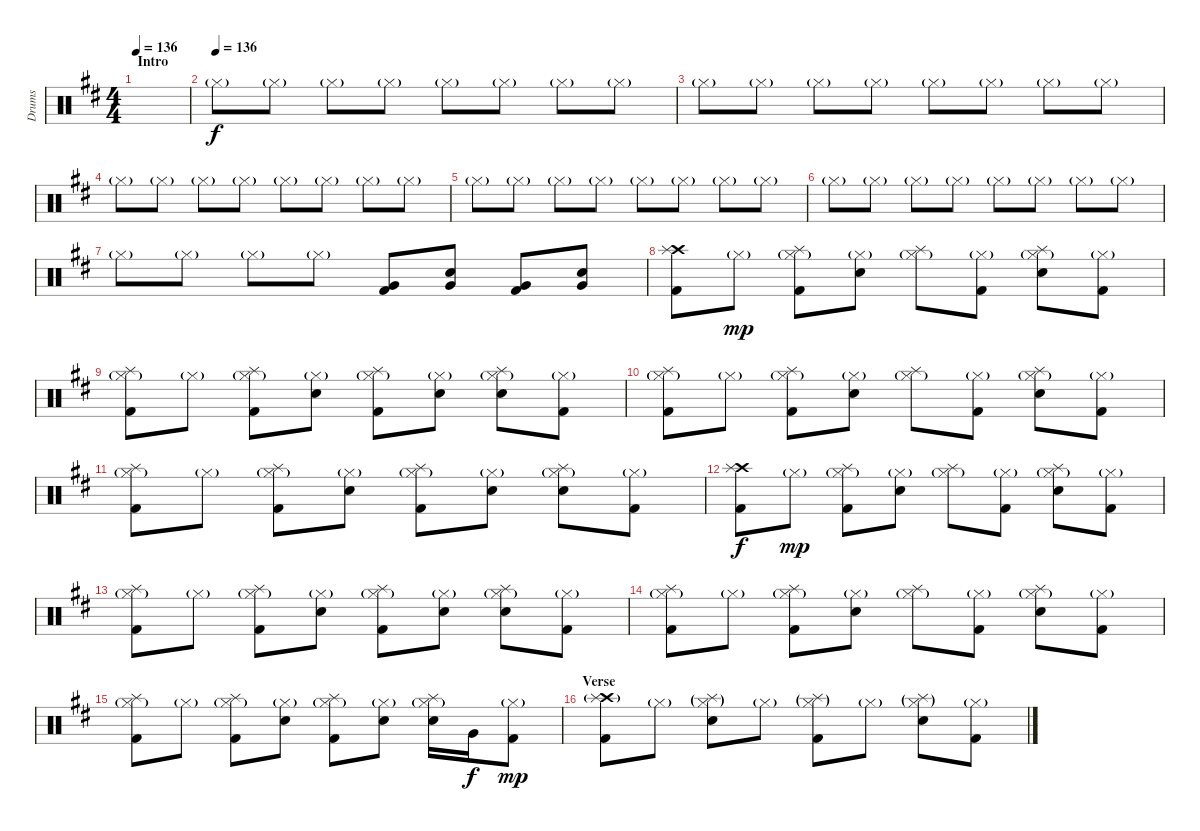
\track ("Drums" "Drums") {instrument percussion}
\staff {score}
\articulation defaults
\ts (4 4)
\section ("" "Intro")
\tempo 136
\tempo 100
\tempo 136
\clef neutral
\ks d
|
\tempo (136)
"Hi-Hat (closed)"{g}.8{volume 5} "Hi-Hat (closed)"{g}.8 "Hi-Hat (closed)"{g}.8 "Hi-Hat (closed)"{g}.8 "Hi-Hat (closed)"{g}.8 "Hi-Hat (closed)"{g}.8 "Hi-Hat (closed)"{g}.8 "Hi-Hat (closed)"{g}.8 |
"Hi-Hat (closed)"{g}.8 "Hi-Hat (closed)"{g}.8 "Hi-Hat (closed)"{g}.8 "Hi-Hat (closed)"{g}.8 "Hi-Hat (closed)"{g}.8 "Hi-Hat (closed)"{g}.8 "Hi-Hat (closed)"{g}.8 "Hi-Hat (closed)"{g}.8 |
"Hi-Hat (closed)"{g}.8 "Hi-Hat (closed)"{g}.8 "Hi-Hat (closed)"{g}.8 "Hi-Hat (closed)"{g}.8 "Hi-Hat (closed)"{g}.8 "Hi-Hat (closed)"{g}.8 "Hi-Hat (closed)"{g}.8 "Hi-Hat (closed)"{g}.8 |
"Hi-Hat (closed)"{g}.8 "Hi-Hat (closed)"{g}.8 "Hi-Hat (closed)"{g}.8 "Hi-Hat (closed)"{g}.8 "Hi-Hat (closed)"{g}.8 "Hi-Hat (closed)"{g}.8 "Hi-Hat (closed)"{g}.8 "Hi-Hat (closed)"{g}.8 |
"Hi-Hat (closed)"{g}.8 "Hi-Hat (closed)"{g}.8 "Hi-Hat (closed)"{g}.8 "Hi-Hat (closed)"{g}.8 "Hi-Hat (closed)"{g}.8 "Hi-Hat (closed)"{g}.8 "Hi-Hat (closed)"{g}.8 "Hi-Hat (closed)"{g}.8 |
"Hi-Hat (closed)"{g}.8 "Hi-Hat (closed)"{g}.8 "Hi-Hat (closed)"{g}.8 "Hi-Hat (closed)"{g}.8 ("Very Low Tom (hit)" "Kick (hit) 2").8{dy f volume 13} ("Very Low Tom (hit)" "Snare (hit) 2").8 ("Very Low Tom (hit)" "Kick (hit) 2").8 ("Very Low Tom (hit)" "Snare (hit) 2").8 |
("Crash high (hit)" "Splash (hit)" "Kick (hit) 2").8 "Hi-Hat (closed)"{g}.8{dy mp} ("Hi-Hat (closed)"{g} "Splash (hit)" "Kick (hit) 2").8 ("Hi-Hat (closed)"{g} "Snare (hit) 2").8 ("Hi-Hat (closed)"{g} "Splash (hit)").8 ("Hi-Hat (closed)"{g} "Kick (hit) 2").8 ("Hi-Hat (closed)"{g} "Splash (hit)" "Snare (hit) 2").8 ("Hi-Hat (closed)"{g} "Kick (hit) 2").8 |
("Hi-Hat (closed)"{g} "Splash (hit)" "Kick (hit) 2").8 "Hi-Hat (closed)"{g}.8 ("Hi-Hat (closed)"{g} "Splash (hit)" "Kick (hit) 2").8 ("Hi-Hat (closed)"{g} "Snare (hit) 2").8 ("Hi-Hat (closed)"{g} "Splash (hit)" "Kick (hit) 2").8 ("Hi-Hat (closed)"{g} "Snare (hit) 2").8 ("Hi-Hat (closed)"{g} "Splash (hit)" "Snare (hit) 2").8 ("Hi-Hat (closed)"{g} "Kick (hit) 2").8 |
("Hi-Hat (closed)"{g} "Splash (hit)" "Kick (hit) 2").8 "Hi-Hat (closed)"{g}.8 ("Hi-Hat (closed)"{g} "Splash (hit)" "Kick (hit) 2").8 ("Hi-Hat (closed)"{g} "Snare (hit) 2").8 ("Hi-Hat (closed)"{g} "Splash (hit)").8 ("Hi-Hat (closed)"{g} "Kick (hit) 2").8 ("Hi-Hat (closed)"{g} "Splash (hit)" "Snare (hit) 2").8 ("Hi-Hat (closed)"{g} "Kick (hit) 2").8 |
("Hi-Hat (closed)"{g} "Splash (hit)" "Kick (hit) 2").8 "Hi-Hat (closed)"{g}.8 ("Hi-Hat (closed)"{g} "Splash (hit)" "Kick (hit) 2").8 ("Hi-Hat (closed)"{g} "Snare (hit) 2").8 ("Hi-Hat (closed)"{g} "Splash (hit)" "Kick (hit) 2").8 ("Hi-Hat (closed)"{g} "Snare (hit) 2").8 ("Hi-Hat (closed)"{g} "Splash (hit)" "Snare (hit) 2").8 ("Hi-Hat (closed)"{g} "Kick (hit) 2").8 |
("Crash high (hit)" "Splash (hit)" "Kick (hit) 2").8{dy f} "Hi-Hat (closed)"{g}.8{dy mp} ("Hi-Hat (closed)"{g} "Splash (hit)" "Kick (hit) 2").8 ("Hi-Hat (closed)"{g} "Snare (hit) 2").8 ("Hi-Hat (closed)"{g} "Splash (hit)").8 ("Hi-Hat (closed)"{g} "Kick (hit) 2").8 ("Hi-Hat (closed)"{g} "Splash (hit)" "Snare (hit) 2").8 ("Hi-Hat (closed)"{g} "Kick (hit) 2").8 |
("Hi-Hat (closed)"{g} "Splash (hit)" "Kick (hit) 2").8 "Hi-Hat (closed)"{g}.8 ("Hi-Hat (closed)"{g} "Splash (hit)" "Kick (hit) 2").8 ("Hi-Hat (closed)"{g} "Snare (hit) 2").8 ("Hi-Hat (closed)"{g} "Splash (hit)" "Kick (hit) 2").8 ("Hi-Hat (closed)"{g} "Snare (hit) 2").8 ("Hi-Hat (closed)"{g} "Splash (hit)" "Snare (hit) 2").8 ("Hi-Hat (closed)"{g} "Kick (hit) 2").8 |
("Hi-Hat (closed)"{g} "Splash (hit)" "Kick (hit) 2").8 "Hi-Hat (closed)"{g}.8 ("Hi-Hat (closed)"{g} "Splash (hit)" "Kick (hit) 2").8 ("Hi-Hat (closed)"{g} "Snare (hit) 2").8 ("Hi-Hat (closed)"{g} "Splash (hit)").8 ("Hi-Hat (closed)"{g} "Kick (hit) 2").8 ("Hi-Hat (closed)"{g} "Splash (hit)" "Snare (hit) 2").8 ("Hi-Hat (closed)"{g} "Kick (hit) 2").8 |
("Hi-Hat (closed)"{g} "Splash (hit)" "Kick (hit) 2").8 "Hi-Hat (closed)"{g}.8 ("Hi-Hat (closed)"{g} "Splash (hit)" "Kick (hit) 2").8 ("Hi-Hat (closed)"{g} "Snare (hit) 2").8 ("Hi-Hat (closed)"{g} "Splash (hit)" "Kick (hit) 2").8 ("Hi-Hat (closed)"{g} "Snare (hit) 2").8 ("Hi-Hat (closed)"{g} "Splash (hit)" "Snare (hit) 2").16 "Very Low Tom (hit)".16{dy f} ("Hi-Hat (closed)"{g} "Kick (hit) 2").8{dy mp} |
\section ("" "Verse")
("Crash high (hit)" "Splash (hit)"{g} "Kick (hit) 2").8 "Hi-Hat (closed)"{g}.8 ("Hi-Hat (closed)"{g} "Splash (hit)"{g} "Snare (hit) 2").8 "Hi-Hat (closed)"{g}.8 ("Hi-Hat (closed)"{g} "Splash (hit)"{g} "Kick (hit) 2").8 "Hi-Hat (closed)"{g}.8 ("Hi-Hat (closed)"{g} "Splash (hit)"{g} "Snare (hit) 2").8 ("Hi-Hat (closed)"{g} "Kick (hit) 2").8
